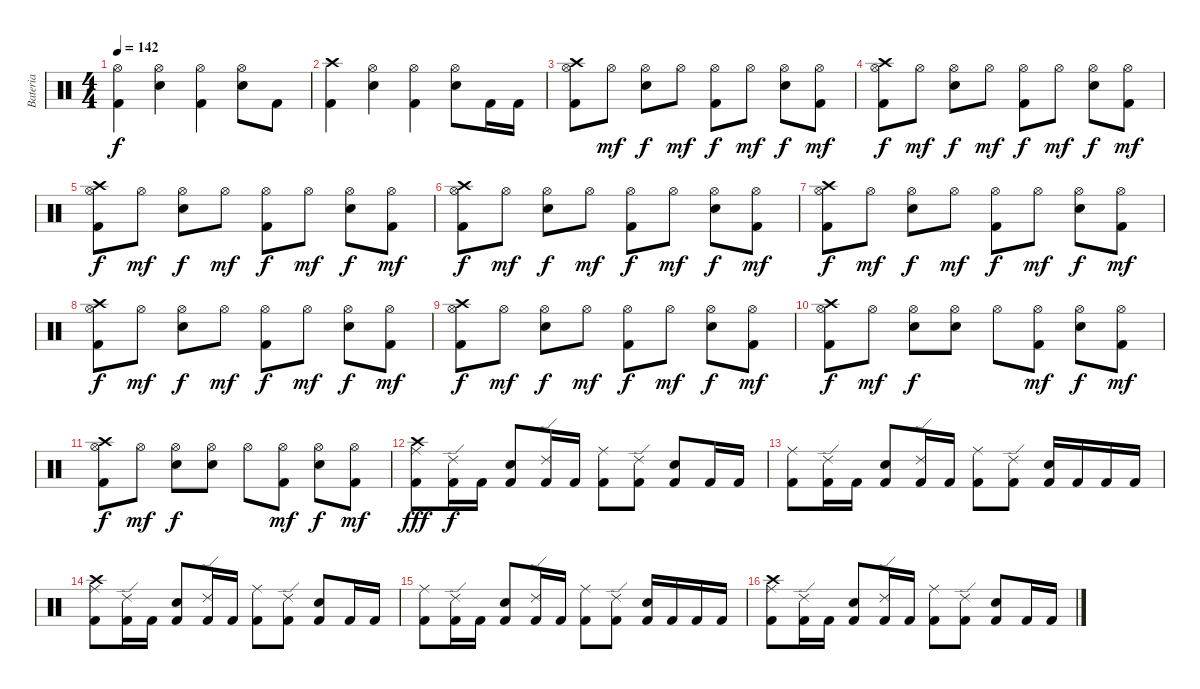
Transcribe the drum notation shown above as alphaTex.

\track ("Bateria" "Bateria") {instrument percussion}
\staff {score}
\articulation defaults
\ts (4 4)
\tempo 142
\clef neutral
\ks c
("Kick (hit) 2" "Hi-Hat (open)").4{dy f} ("Electric Snare (hit)" "Hi-Hat (open)").4 ("Kick (hit) 2" "Hi-Hat (open)").4 ("Electric Snare (hit)" "Hi-Hat (open)").8 "Kick (hit) 2".8 |
("Crash high (hit)" "Kick (hit) 2").4 ("Electric Snare (hit)" "Hi-Hat (open)").4 ("Kick (hit) 2" "Hi-Hat (open)").4 ("Electric Snare (hit)" "Hi-Hat (open)").8 "Kick (hit) 2".16 "Kick (hit) 2".16 |
("Crash high (hit)" "Kick (hit) 2" "Hi-Hat (open)").8 "Hi-Hat (open)".8{dy mf} ("Electric Snare (hit)" "Hi-Hat (open)").8{dy f} "Hi-Hat (open)".8{dy mf} ("Kick (hit) 2" "Hi-Hat (open)").8{dy f} "Hi-Hat (open)".8{dy mf} ("Electric Snare (hit)" "Hi-Hat (open)").8{dy f} ("Kick (hit) 2" "Hi-Hat (open)").8{dy mf} |
("Crash high (hit)" "Kick (hit) 2" "Hi-Hat (open)").8{dy f} "Hi-Hat (open)".8{dy mf} ("Electric Snare (hit)" "Hi-Hat (open)").8{dy f} "Hi-Hat (open)".8{dy mf} ("Kick (hit) 2" "Hi-Hat (open)").8{dy f} "Hi-Hat (open)".8{dy mf} ("Electric Snare (hit)" "Hi-Hat (open)").8{dy f} ("Kick (hit) 2" "Hi-Hat (open)").8{dy mf} |
("Crash high (hit)" "Kick (hit) 2" "Hi-Hat (open)").8{dy f} "Hi-Hat (open)".8{dy mf} ("Electric Snare (hit)" "Hi-Hat (open)").8{dy f} "Hi-Hat (open)".8{dy mf} ("Kick (hit) 2" "Hi-Hat (open)").8{dy f} "Hi-Hat (open)".8{dy mf} ("Electric Snare (hit)" "Hi-Hat (open)").8{dy f} ("Kick (hit) 2" "Hi-Hat (open)").8{dy mf} |
("Crash high (hit)" "Kick (hit) 2" "Hi-Hat (open)").8{dy f} "Hi-Hat (open)".8{dy mf} ("Electric Snare (hit)" "Hi-Hat (open)").8{dy f} "Hi-Hat (open)".8{dy mf} ("Kick (hit) 2" "Hi-Hat (open)").8{dy f} "Hi-Hat (open)".8{dy mf} ("Electric Snare (hit)" "Hi-Hat (open)").8{dy f} ("Kick (hit) 2" "Hi-Hat (open)").8{dy mf} |
("Crash high (hit)" "Kick (hit) 2" "Hi-Hat (open)").8{dy f} "Hi-Hat (open)".8{dy mf} ("Electric Snare (hit)" "Hi-Hat (open)").8{dy f} "Hi-Hat (open)".8{dy mf} ("Kick (hit) 2" "Hi-Hat (open)").8{dy f} "Hi-Hat (open)".8{dy mf} ("Electric Snare (hit)" "Hi-Hat (open)").8{dy f} ("Kick (hit) 2" "Hi-Hat (open)").8{dy mf} |
("Crash high (hit)" "Kick (hit) 2" "Hi-Hat (open)").8{dy f} "Hi-Hat (open)".8{dy mf} ("Electric Snare (hit)" "Hi-Hat (open)").8{dy f} "Hi-Hat (open)".8{dy mf} ("Kick (hit) 2" "Hi-Hat (open)").8{dy f} "Hi-Hat (open)".8{dy mf} ("Electric Snare (hit)" "Hi-Hat (open)").8{dy f} ("Kick (hit) 2" "Hi-Hat (open)").8{dy mf} |
("Crash high (hit)" "Kick (hit) 2" "Hi-Hat (open)").8{dy f} "Hi-Hat (open)".8{dy mf} ("Electric Snare (hit)" "Hi-Hat (open)").8{dy f} "Hi-Hat (open)".8{dy mf} ("Kick (hit) 2" "Hi-Hat (open)").8{dy f} "Hi-Hat (open)".8{dy mf} ("Electric Snare (hit)" "Hi-Hat (open)").8{dy f} ("Kick (hit) 2" "Hi-Hat (open)").8{dy mf} |
("Crash high (hit)" "Kick (hit) 2" "Hi-Hat (open)").8{dy f} "Hi-Hat (open)".8{dy mf} ("Electric Snare (hit)" "Hi-Hat (open)").8{dy f} ("Electric Snare (hit)" "Hi-Hat (open)").8 "Hi-Hat (open)".8 ("Kick (hit) 2" "Hi-Hat (open)").8{dy mf} ("Electric Snare (hit)" "Hi-Hat (open)").8{dy f} ("Kick (hit) 2" "Hi-Hat (open)").8{dy mf} |
("Crash high (hit)" "Kick (hit) 2" "Hi-Hat (open)").8{dy f} "Hi-Hat (open)".8{dy mf} ("Electric Snare (hit)" "Hi-Hat (open)").8{dy f} ("Electric Snare (hit)" "Hi-Hat (open)").8 "Hi-Hat (open)".8 ("Kick (hit) 2" "Hi-Hat (open)").8{dy mf} ("Electric Snare (hit)" "Hi-Hat (open)").8{dy f} ("Kick (hit) 2" "Hi-Hat (open)").8{dy mf} |
("Ride (middle)" "Kick (hit) 2" "Crash high (hit)").8{dy fff} ("Ride (edge) 2" "Kick (hit) 2").16{dy f} "Kick (hit) 2".16 ("Electric Snare (hit)" "Kick (hit) 2").8 ("Ride (edge) 2" "Kick (hit) 2").16 "Kick (hit) 2".16 ("Ride (middle)" "Kick (hit) 2").8 ("Ride (edge) 2" "Kick (hit) 2").8 ("Electric Snare (hit)" "Kick (hit) 2").8 "Kick (hit) 2".16 "Kick (hit) 2".16 |
("Ride (middle)" "Kick (hit) 2").8 ("Ride (edge) 2" "Kick (hit) 2").16 "Kick (hit) 2".16 ("Electric Snare (hit)" "Kick (hit) 2").8 ("Ride (edge) 2" "Kick (hit) 2").16 "Kick (hit) 2".16 ("Ride (middle)" "Kick (hit) 2").8 ("Ride (edge) 2" "Kick (hit) 2").8 ("Electric Snare (hit)" "Kick (hit) 2").16 "Kick (hit) 2".16 "Kick (hit) 2".16 "Kick (hit) 2".16 |
("Ride (middle)" "Kick (hit) 2" "Crash high (hit)").8 ("Ride (edge) 2" "Kick (hit) 2").16 "Kick (hit) 2".16 ("Electric Snare (hit)" "Kick (hit) 2").8 ("Ride (edge) 2" "Kick (hit) 2").16 "Kick (hit) 2".16 ("Ride (middle)" "Kick (hit) 2").8 ("Ride (edge) 2" "Kick (hit) 2").8 ("Electric Snare (hit)" "Kick (hit) 2").8 "Kick (hit) 2".16 "Kick (hit) 2".16 |
("Ride (middle)" "Kick (hit) 2").8 ("Ride (edge) 2" "Kick (hit) 2").16 "Kick (hit) 2".16 ("Electric Snare (hit)" "Kick (hit) 2").8 ("Ride (edge) 2" "Kick (hit) 2").16 "Kick (hit) 2".16 ("Ride (middle)" "Kick (hit) 2").8 ("Ride (edge) 2" "Kick (hit) 2").8 ("Electric Snare (hit)" "Kick (hit) 2").16 "Kick (hit) 2".16 "Kick (hit) 2".16 "Kick (hit) 2".16 |
("Ride (middle)" "Kick (hit) 2" "Crash high (hit)").8 ("Ride (edge) 2" "Kick (hit) 2").16 "Kick (hit) 2".16 ("Electric Snare (hit)" "Kick (hit) 2").8 ("Ride (edge) 2" "Kick (hit) 2").16 "Kick (hit) 2".16 ("Ride (middle)" "Kick (hit) 2").8 ("Ride (edge) 2" "Kick (hit) 2").8 ("Electric Snare (hit)" "Kick (hit) 2").8 "Kick (hit) 2".16 "Kick (hit) 2".16
